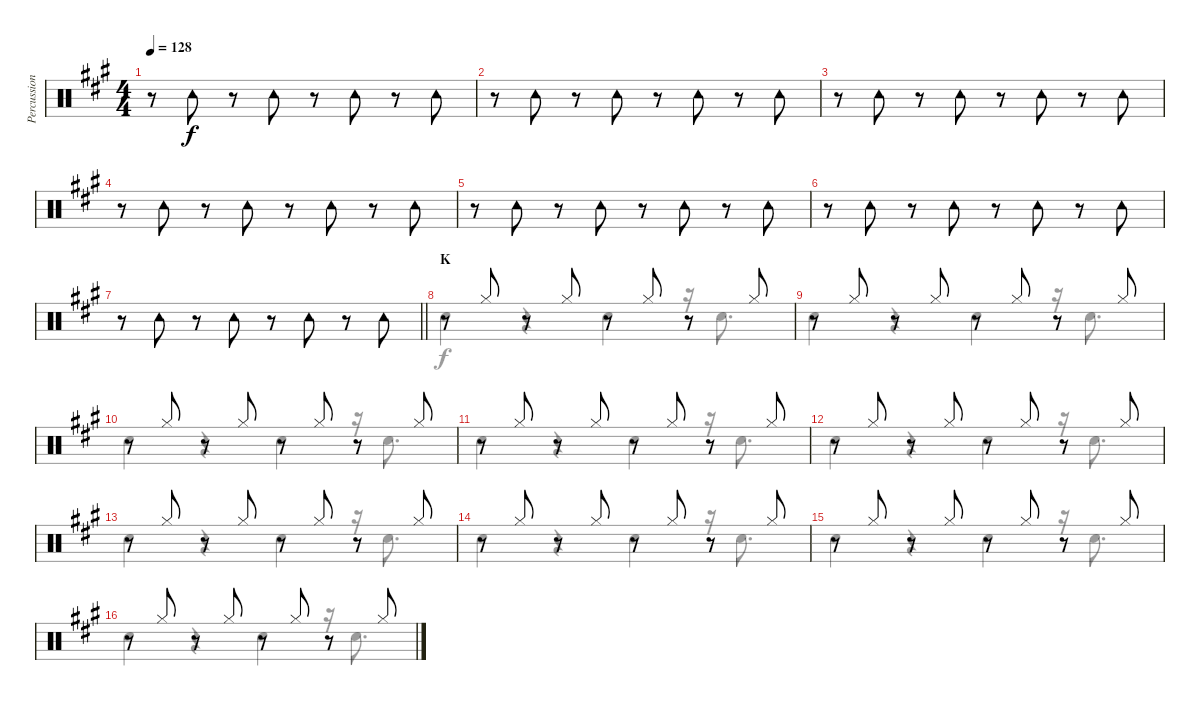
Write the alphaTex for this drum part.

\track ("Percussion" "Percussion") {instrument percussion}
\staff {score}
\articulation defaults
\voice
\ts (4 4)
\tempo 128
\clef neutral
\ks a
r.8{dy f} "Tambourine (hit)".8 r.8 "Tambourine (hit)".8 r.8 "Tambourine (hit)".8 r.8 "Tambourine (hit)".8 |
r.8 "Tambourine (hit)".8 r.8 "Tambourine (hit)".8 r.8 "Tambourine (hit)".8 r.8 "Tambourine (hit)".8 |
r.8 "Tambourine (hit)".8 r.8 "Tambourine (hit)".8 r.8 "Tambourine (hit)".8 r.8 "Tambourine (hit)".8 |
r.8 "Tambourine (hit)".8 r.8 "Tambourine (hit)".8 r.8 "Tambourine (hit)".8 r.8 "Tambourine (hit)".8 |
r.8 "Tambourine (hit)".8 r.8 "Tambourine (hit)".8 r.8 "Tambourine (hit)".8 r.8 "Tambourine (hit)".8 |
r.8 "Tambourine (hit)".8 r.8 "Tambourine (hit)".8 r.8 "Tambourine (hit)".8 r.8 "Tambourine (hit)".8 |
\barLineRight lightlight
r.8 "Tambourine (hit)".8 r.8 "Tambourine (hit)".8 r.8 "Tambourine (hit)".8 r.8 "Tambourine (hit)".8 |
\section ("" "K")
r.8 "Hi-Hat (closed)".8 r.8 "Hi-Hat (closed)".8 r.8 "Hi-Hat (closed)".8 r.8 "Hi-Hat (closed)".8 |
r.8 "Hi-Hat (closed)".8 r.8 "Hi-Hat (closed)".8 r.8 "Hi-Hat (closed)".8 r.8 "Hi-Hat (closed)".8 |
r.8 "Hi-Hat (closed)".8 r.8 "Hi-Hat (closed)".8 r.8 "Hi-Hat (closed)".8 r.8 "Hi-Hat (closed)".8 |
r.8 "Hi-Hat (closed)".8 r.8 "Hi-Hat (closed)".8 r.8 "Hi-Hat (closed)".8 r.8 "Hi-Hat (closed)".8 |
r.8 "Hi-Hat (closed)".8 r.8 "Hi-Hat (closed)".8 r.8 "Hi-Hat (closed)".8 r.8 "Hi-Hat (closed)".8 |
r.8 "Hi-Hat (closed)".8 r.8 "Hi-Hat (closed)".8 r.8 "Hi-Hat (closed)".8 r.8 "Hi-Hat (closed)".8 |
r.8 "Hi-Hat (closed)".8 r.8 "Hi-Hat (closed)".8 r.8 "Hi-Hat (closed)".8 r.8 "Hi-Hat (closed)".8 |
r.8 "Hi-Hat (closed)".8 r.8 "Hi-Hat (closed)".8 r.8 "Hi-Hat (closed)".8 r.8 "Hi-Hat (closed)".8 |
r.8 "Hi-Hat (closed)".8 r.8 "Hi-Hat (closed)".8 r.8 "Hi-Hat (closed)".8 r.8 "Hi-Hat (closed)".8
\voice
\clef neutral
\ottava regular
\simile none
\ks a
|
|
|
|
|
|
\barLineRight lightlight
|
"Snare (hit) 2".4 r.4 "Snare (hit) 2".4 r.16 "Snare (hit) 2".8{d} |
"Snare (hit) 2".4 r.4 "Snare (hit) 2".4 r.16 "Snare (hit) 2".8{d} |
"Snare (hit) 2".4 r.4 "Snare (hit) 2".4 r.16 "Snare (hit) 2".8{d} |
"Snare (hit) 2".4 r.4 "Snare (hit) 2".4 r.16 "Snare (hit) 2".8{d} |
"Snare (hit) 2".4 r.4 "Snare (hit) 2".4 r.16 "Snare (hit) 2".8{d} |
"Snare (hit) 2".4 r.4 "Snare (hit) 2".4 r.16 "Snare (hit) 2".8{d} |
"Snare (hit) 2".4 r.4 "Snare (hit) 2".4 r.16 "Snare (hit) 2".8{d} |
"Snare (hit) 2".4 r.4 "Snare (hit) 2".4 r.16 "Snare (hit) 2".8{d} |
"Snare (hit) 2".4 r.4 "Snare (hit) 2".4 r.16 "Snare (hit) 2".8{d}
